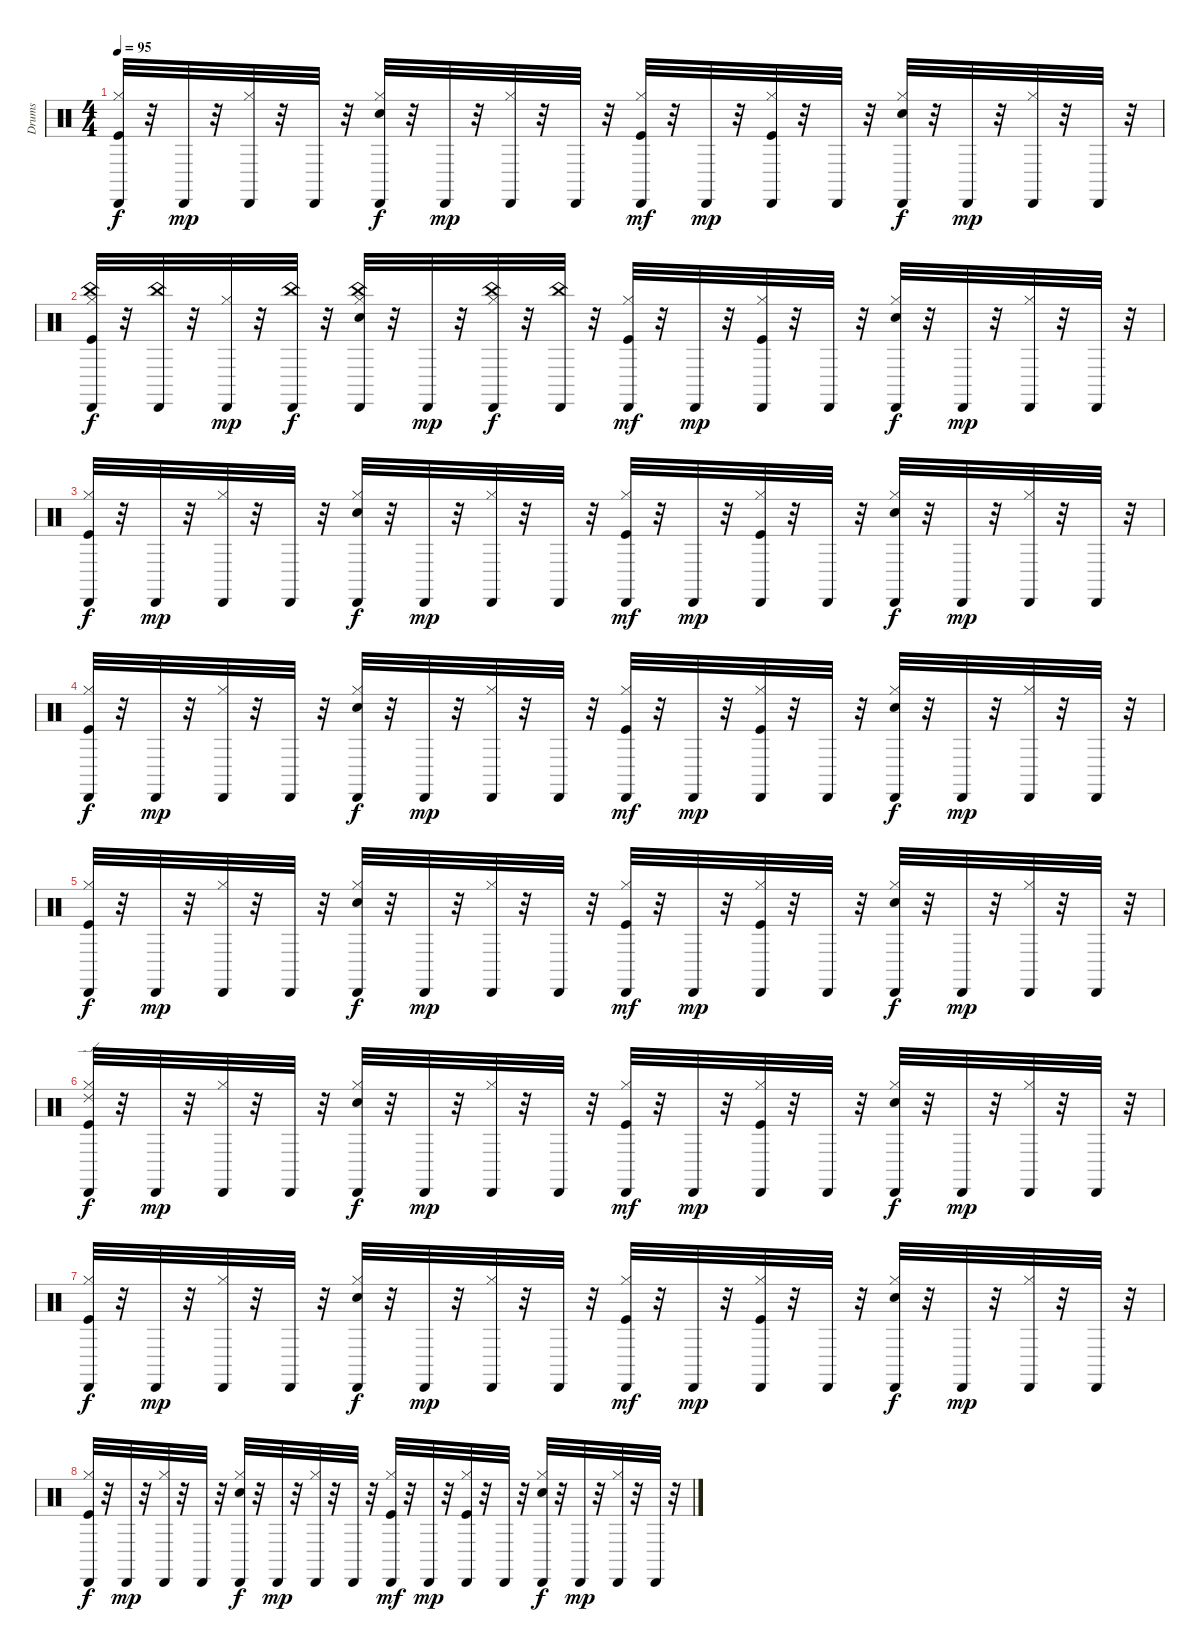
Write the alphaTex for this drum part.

\track ("Drums" "Drums") {instrument percussion}
\staff {score}
\articulation defaults
\ts (4 4)
\tempo 95
\clef neutral
\ks c
("Hi-Hat (closed)" "Kick (hit)" "Cabasa (hit)").32{dy f} r.32 "Cabasa (hit)".32{dy mp} r.32 ("Hi-Hat (closed)" "Cabasa (hit)").32 r.32 "Cabasa (hit)".32 r.32 ("Hi-Hat (closed)" "Electric Snare (hit)" "Cabasa (hit)").32{dy f} r.32 "Cabasa (hit)".32{dy mp} r.32 ("Hi-Hat (closed)" "Cabasa (hit)").32 r.32 "Cabasa (hit)".32 r.32 ("Hi-Hat (closed)" "Kick (hit)" "Cabasa (hit)").32{dy mf} r.32 "Cabasa (hit)".32{dy mp} r.32 ("Hi-Hat (closed)" "Kick (hit)" "Cabasa (hit)").32 r.32 "Cabasa (hit)".32 r.32 ("Hi-Hat (closed)" "Electric Snare (hit)" "Cabasa (hit)").32{dy f} r.32 "Cabasa (hit)".32{dy mp} r.32 ("Hi-Hat (closed)" "Cabasa (hit)").32 r.32 "Cabasa (hit)".32 r.32 |
("Kick (hit)" "Hi-Hat (closed)" "Cabasa (hit)" "China (choke)").32{dy f} r.32 ("Cabasa (hit)" "China (choke)").32 r.32 ("Hi-Hat (closed)" "Cabasa (hit)").32{dy mp} r.32 ("Cabasa (hit)" "China (choke)").32{dy f} r.32 ("Hi-Hat (closed)" "Electric Snare (hit)" "Cabasa (hit)" "China (choke)").32 r.32 "Cabasa (hit)".32{dy mp} r.32 ("Hi-Hat (closed)" "Cabasa (hit)" "China (choke)").32{dy f} r.32 ("Cabasa (hit)" "China (choke)").32 r.32 ("Hi-Hat (closed)" "Kick (hit)" "Cabasa (hit)").32{dy mf} r.32 "Cabasa (hit)".32{dy mp} r.32 ("Hi-Hat (closed)" "Kick (hit)" "Cabasa (hit)").32 r.32 "Cabasa (hit)".32 r.32 ("Hi-Hat (closed)" "Electric Snare (hit)" "Cabasa (hit)").32{dy f} r.32 "Cabasa (hit)".32{dy mp} r.32 ("Hi-Hat (closed)" "Cabasa (hit)").32 r.32 "Cabasa (hit)".32 r.32 |
("Hi-Hat (closed)" "Kick (hit)" "Cabasa (hit)").32{dy f} r.32 "Cabasa (hit)".32{dy mp} r.32 ("Hi-Hat (closed)" "Cabasa (hit)").32 r.32 "Cabasa (hit)".32 r.32 ("Hi-Hat (closed)" "Electric Snare (hit)" "Cabasa (hit)").32{dy f} r.32 "Cabasa (hit)".32{dy mp} r.32 ("Hi-Hat (closed)" "Cabasa (hit)").32 r.32 "Cabasa (hit)".32 r.32 ("Hi-Hat (closed)" "Kick (hit)" "Cabasa (hit)").32{dy mf} r.32 "Cabasa (hit)".32{dy mp} r.32 ("Hi-Hat (closed)" "Kick (hit)" "Cabasa (hit)").32 r.32 "Cabasa (hit)".32 r.32 ("Hi-Hat (closed)" "Electric Snare (hit)" "Cabasa (hit)").32{dy f} r.32 "Cabasa (hit)".32{dy mp} r.32 ("Hi-Hat (closed)" "Cabasa (hit)").32 r.32 "Cabasa (hit)".32 r.32 |
("Kick (hit)" "Hi-Hat (closed)" "Cabasa (hit)").32{dy f} r.32 "Cabasa (hit)".32{dy mp} r.32 ("Hi-Hat (closed)" "Cabasa (hit)").32 r.32 "Cabasa (hit)".32 r.32 ("Hi-Hat (closed)" "Electric Snare (hit)" "Cabasa (hit)").32{dy f} r.32 "Cabasa (hit)".32{dy mp} r.32 ("Hi-Hat (closed)" "Cabasa (hit)").32 r.32 "Cabasa (hit)".32 r.32 ("Hi-Hat (closed)" "Kick (hit)" "Cabasa (hit)").32{dy mf} r.32 "Cabasa (hit)".32{dy mp} r.32 ("Hi-Hat (closed)" "Kick (hit)" "Cabasa (hit)").32 r.32 "Cabasa (hit)".32 r.32 ("Hi-Hat (closed)" "Electric Snare (hit)" "Cabasa (hit)").32{dy f} r.32 "Cabasa (hit)".32{dy mp} r.32 ("Hi-Hat (closed)" "Cabasa (hit)").32 r.32 "Cabasa (hit)".32 r.32 |
("Hi-Hat (closed)" "Kick (hit)" "Cabasa (hit)").32{dy f} r.32 "Cabasa (hit)".32{dy mp} r.32 ("Hi-Hat (closed)" "Cabasa (hit)").32 r.32 "Cabasa (hit)".32 r.32 ("Hi-Hat (closed)" "Electric Snare (hit)" "Cabasa (hit)").32{dy f} r.32 "Cabasa (hit)".32{dy mp} r.32 ("Hi-Hat (closed)" "Cabasa (hit)").32 r.32 "Cabasa (hit)".32 r.32 ("Hi-Hat (closed)" "Kick (hit)" "Cabasa (hit)").32{dy mf} r.32 "Cabasa (hit)".32{dy mp} r.32 ("Hi-Hat (closed)" "Kick (hit)" "Cabasa (hit)").32 r.32 "Cabasa (hit)".32 r.32 ("Hi-Hat (closed)" "Electric Snare (hit)" "Cabasa (hit)").32{dy f} r.32 "Cabasa (hit)".32{dy mp} r.32 ("Hi-Hat (closed)" "Cabasa (hit)").32 r.32 "Cabasa (hit)".32 r.32 |
("Kick (hit)" "Hi-Hat (closed)" "Ride (edge) 2" "Cabasa (hit)").32{dy f} r.32 "Cabasa (hit)".32{dy mp} r.32 ("Hi-Hat (closed)" "Cabasa (hit)").32 r.32 "Cabasa (hit)".32 r.32 ("Hi-Hat (closed)" "Electric Snare (hit)" "Cabasa (hit)").32{dy f} r.32 "Cabasa (hit)".32{dy mp} r.32 ("Hi-Hat (closed)" "Cabasa (hit)").32 r.32 "Cabasa (hit)".32 r.32 ("Hi-Hat (closed)" "Kick (hit)" "Cabasa (hit)").32{dy mf} r.32 "Cabasa (hit)".32{dy mp} r.32 ("Hi-Hat (closed)" "Kick (hit)" "Cabasa (hit)").32 r.32 "Cabasa (hit)".32 r.32 ("Hi-Hat (closed)" "Electric Snare (hit)" "Cabasa (hit)").32{dy f} r.32 "Cabasa (hit)".32{dy mp} r.32 ("Hi-Hat (closed)" "Cabasa (hit)").32 r.32 "Cabasa (hit)".32 r.32 |
("Hi-Hat (closed)" "Kick (hit)" "Cabasa (hit)").32{dy f} r.32 "Cabasa (hit)".32{dy mp} r.32 ("Hi-Hat (closed)" "Cabasa (hit)").32 r.32 "Cabasa (hit)".32 r.32 ("Hi-Hat (closed)" "Electric Snare (hit)" "Cabasa (hit)").32{dy f} r.32 "Cabasa (hit)".32{dy mp} r.32 ("Hi-Hat (closed)" "Cabasa (hit)").32 r.32 "Cabasa (hit)".32 r.32 ("Hi-Hat (closed)" "Kick (hit)" "Cabasa (hit)").32{dy mf} r.32 "Cabasa (hit)".32{dy mp} r.32 ("Hi-Hat (closed)" "Kick (hit)" "Cabasa (hit)").32 r.32 "Cabasa (hit)".32 r.32 ("Hi-Hat (closed)" "Electric Snare (hit)" "Cabasa (hit)").32{dy f} r.32 "Cabasa (hit)".32{dy mp} r.32 ("Hi-Hat (closed)" "Cabasa (hit)").32 r.32 "Cabasa (hit)".32 r.32 |
("Kick (hit)" "Hi-Hat (closed)" "Cabasa (hit)").32{dy f} r.32 "Cabasa (hit)".32{dy mp} r.32 ("Hi-Hat (closed)" "Cabasa (hit)").32 r.32 "Cabasa (hit)".32 r.32 ("Hi-Hat (closed)" "Electric Snare (hit)" "Cabasa (hit)").32{dy f} r.32 "Cabasa (hit)".32{dy mp} r.32 ("Hi-Hat (closed)" "Cabasa (hit)").32 r.32 "Cabasa (hit)".32 r.32 ("Hi-Hat (closed)" "Kick (hit)" "Cabasa (hit)").32{dy mf} r.32 "Cabasa (hit)".32{dy mp} r.32 ("Hi-Hat (closed)" "Kick (hit)" "Cabasa (hit)").32 r.32 "Cabasa (hit)".32 r.32 ("Hi-Hat (closed)" "Electric Snare (hit)" "Cabasa (hit)").32{dy f} r.32 "Cabasa (hit)".32{dy mp} r.32 ("Hi-Hat (closed)" "Cabasa (hit)").32 r.32 "Cabasa (hit)".32 r.32
